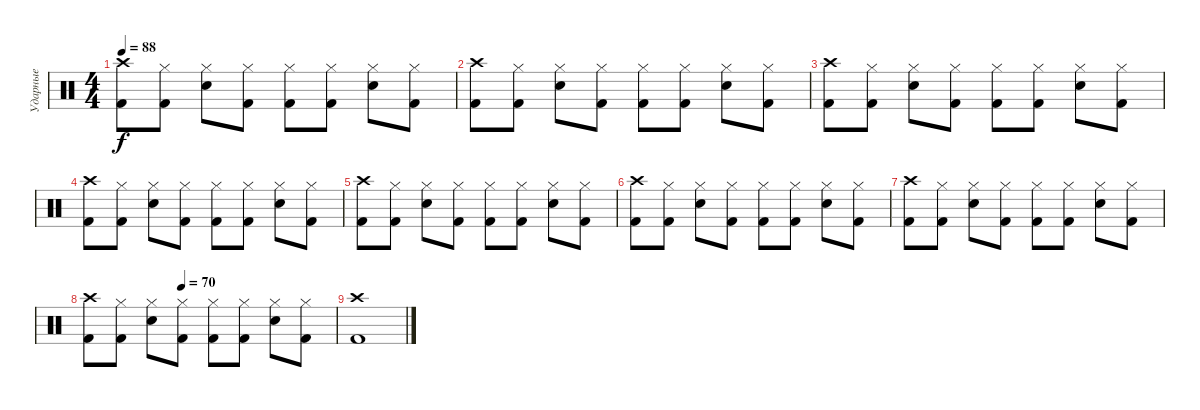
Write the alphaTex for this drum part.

\track ("Ударные" "Ударные") {instrument percussion}
\staff {score}
\articulation defaults
\ts (4 4)
\tempo 88
\clef neutral
\ks c
("Crash high (hit)" "Kick (hit) 2").8{dy f} ("Hi-Hat (closed)" "Kick (hit) 2").8 ("Hi-Hat (closed)" "Snare (hit) 2").8 ("Hi-Hat (closed)" "Kick (hit) 2").8 ("Hi-Hat (closed)" "Kick (hit) 2").8 ("Hi-Hat (closed)" "Kick (hit) 2").8 ("Hi-Hat (closed)" "Snare (hit) 2").8 ("Hi-Hat (closed)" "Kick (hit) 2").8 |
("Crash high (hit)" "Kick (hit) 2").8 ("Hi-Hat (closed)" "Kick (hit) 2").8 ("Hi-Hat (closed)" "Snare (hit) 2").8 ("Hi-Hat (closed)" "Kick (hit) 2").8 ("Hi-Hat (closed)" "Kick (hit) 2").8 ("Hi-Hat (closed)" "Kick (hit) 2").8 ("Hi-Hat (closed)" "Snare (hit) 2").8 ("Hi-Hat (closed)" "Kick (hit) 2").8 |
("Crash high (hit)" "Kick (hit) 2").8 ("Hi-Hat (closed)" "Kick (hit) 2").8 ("Hi-Hat (closed)" "Snare (hit) 2").8 ("Hi-Hat (closed)" "Kick (hit) 2").8 ("Hi-Hat (closed)" "Kick (hit) 2").8 ("Hi-Hat (closed)" "Kick (hit) 2").8 ("Hi-Hat (closed)" "Snare (hit) 2").8 ("Hi-Hat (closed)" "Kick (hit) 2").8 |
("Crash high (hit)" "Kick (hit) 2").8 ("Hi-Hat (closed)" "Kick (hit) 2").8 ("Hi-Hat (closed)" "Snare (hit) 2").8 ("Hi-Hat (closed)" "Kick (hit) 2").8 ("Hi-Hat (closed)" "Kick (hit) 2").8 ("Hi-Hat (closed)" "Kick (hit) 2").8 ("Hi-Hat (closed)" "Snare (hit) 2").8 ("Hi-Hat (closed)" "Kick (hit) 2").8 |
("Crash high (hit)" "Kick (hit) 2").8 ("Hi-Hat (closed)" "Kick (hit) 2").8 ("Hi-Hat (closed)" "Snare (hit) 2").8 ("Hi-Hat (closed)" "Kick (hit) 2").8 ("Hi-Hat (closed)" "Kick (hit) 2").8 ("Hi-Hat (closed)" "Kick (hit) 2").8 ("Hi-Hat (closed)" "Snare (hit) 2").8 ("Hi-Hat (closed)" "Kick (hit) 2").8 |
("Crash high (hit)" "Kick (hit) 2").8 ("Hi-Hat (closed)" "Kick (hit) 2").8 ("Hi-Hat (closed)" "Snare (hit) 2").8 ("Hi-Hat (closed)" "Kick (hit) 2").8 ("Hi-Hat (closed)" "Kick (hit) 2").8 ("Hi-Hat (closed)" "Kick (hit) 2").8 ("Hi-Hat (closed)" "Snare (hit) 2").8 ("Hi-Hat (closed)" "Kick (hit) 2").8 |
("Crash high (hit)" "Kick (hit) 2").8 ("Hi-Hat (closed)" "Kick (hit) 2").8 ("Hi-Hat (closed)" "Snare (hit) 2").8 ("Hi-Hat (closed)" "Kick (hit) 2").8 ("Hi-Hat (closed)" "Kick (hit) 2").8 ("Hi-Hat (closed)" "Kick (hit) 2").8 ("Hi-Hat (closed)" "Snare (hit) 2").8 ("Hi-Hat (closed)" "Kick (hit) 2").8 |
\tempo (70 0.375)
("Crash high (hit)" "Kick (hit) 2").8 ("Hi-Hat (closed)" "Kick (hit) 2").8 ("Hi-Hat (closed)" "Snare (hit) 2").8 ("Hi-Hat (closed)" "Kick (hit) 2").8 ("Hi-Hat (closed)" "Kick (hit) 2").8 ("Hi-Hat (closed)" "Kick (hit) 2").8 ("Hi-Hat (closed)" "Snare (hit) 2").8 ("Hi-Hat (closed)" "Kick (hit) 2").8 |
("Crash high (hit)" "Kick (hit) 2").1
